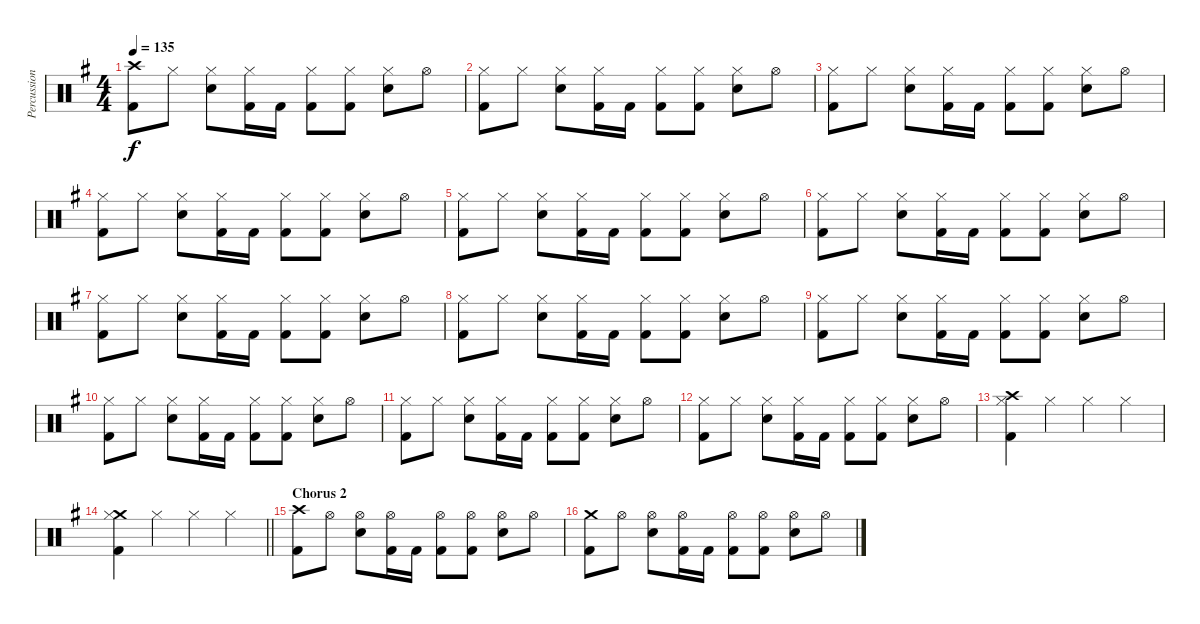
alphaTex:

\track ("Percussion" "Percussion") {instrument percussion}
\staff {score}
\articulation defaults
\ts (4 4)
\tempo 135
\clef neutral
\ks g
("Crash high (hit)" "Kick (hit) 2").8{dy f} "Hi-Hat (closed)".8 ("Hi-Hat (closed)" "Electric Snare (hit)").8 ("Hi-Hat (closed)" "Kick (hit) 2").16 "Kick (hit) 2".16 ("Hi-Hat (closed)" "Kick (hit) 2").8 ("Hi-Hat (closed)" "Kick (hit) 2").8 ("Hi-Hat (closed)" "Electric Snare (hit)").8 "Hi-Hat (open)".8 |
("Hi-Hat (closed)" "Kick (hit) 2").8 "Hi-Hat (closed)".8 ("Hi-Hat (closed)" "Electric Snare (hit)").8 ("Hi-Hat (closed)" "Kick (hit) 2").16 "Kick (hit) 2".16 ("Hi-Hat (closed)" "Kick (hit) 2").8 ("Hi-Hat (closed)" "Kick (hit) 2").8 ("Hi-Hat (closed)" "Electric Snare (hit)").8 "Hi-Hat (open)".8 |
("Hi-Hat (closed)" "Kick (hit) 2").8 "Hi-Hat (closed)".8 ("Hi-Hat (closed)" "Electric Snare (hit)").8 ("Hi-Hat (closed)" "Kick (hit) 2").16 "Kick (hit) 2".16 ("Hi-Hat (closed)" "Kick (hit) 2").8 ("Hi-Hat (closed)" "Kick (hit) 2").8 ("Hi-Hat (closed)" "Electric Snare (hit)").8 "Hi-Hat (open)".8 |
("Hi-Hat (closed)" "Kick (hit) 2").8 "Hi-Hat (closed)".8 ("Hi-Hat (closed)" "Electric Snare (hit)").8 ("Hi-Hat (closed)" "Kick (hit) 2").16 "Kick (hit) 2".16 ("Hi-Hat (closed)" "Kick (hit) 2").8 ("Hi-Hat (closed)" "Kick (hit) 2").8 ("Hi-Hat (closed)" "Electric Snare (hit)").8 "Hi-Hat (open)".8 |
("Hi-Hat (closed)" "Kick (hit) 2").8 "Hi-Hat (closed)".8 ("Hi-Hat (closed)" "Electric Snare (hit)").8 ("Hi-Hat (closed)" "Kick (hit) 2").16 "Kick (hit) 2".16 ("Hi-Hat (closed)" "Kick (hit) 2").8 ("Hi-Hat (closed)" "Kick (hit) 2").8 ("Hi-Hat (closed)" "Electric Snare (hit)").8 "Hi-Hat (open)".8 |
("Hi-Hat (closed)" "Kick (hit) 2").8 "Hi-Hat (closed)".8 ("Hi-Hat (closed)" "Electric Snare (hit)").8 ("Hi-Hat (closed)" "Kick (hit) 2").16 "Kick (hit) 2".16 ("Hi-Hat (closed)" "Kick (hit) 2").8 ("Hi-Hat (closed)" "Kick (hit) 2").8 ("Hi-Hat (closed)" "Electric Snare (hit)").8 "Hi-Hat (open)".8 |
("Hi-Hat (closed)" "Kick (hit) 2").8 "Hi-Hat (closed)".8 ("Hi-Hat (closed)" "Electric Snare (hit)").8 ("Hi-Hat (closed)" "Kick (hit) 2").16 "Kick (hit) 2".16 ("Hi-Hat (closed)" "Kick (hit) 2").8 ("Hi-Hat (closed)" "Kick (hit) 2").8 ("Hi-Hat (closed)" "Electric Snare (hit)").8 "Hi-Hat (open)".8 |
("Hi-Hat (closed)" "Kick (hit) 2").8 "Hi-Hat (closed)".8 ("Hi-Hat (closed)" "Electric Snare (hit)").8 ("Hi-Hat (closed)" "Kick (hit) 2").16 "Kick (hit) 2".16 ("Hi-Hat (closed)" "Kick (hit) 2").8 ("Hi-Hat (closed)" "Kick (hit) 2").8 ("Hi-Hat (closed)" "Electric Snare (hit)").8 "Hi-Hat (open)".8 |
("Hi-Hat (closed)" "Kick (hit) 2").8 "Hi-Hat (closed)".8 ("Hi-Hat (closed)" "Electric Snare (hit)").8 ("Hi-Hat (closed)" "Kick (hit) 2").16 "Kick (hit) 2".16 ("Hi-Hat (closed)" "Kick (hit) 2").8 ("Hi-Hat (closed)" "Kick (hit) 2").8 ("Hi-Hat (closed)" "Electric Snare (hit)").8 "Hi-Hat (open)".8 |
("Hi-Hat (closed)" "Kick (hit) 2").8 "Hi-Hat (closed)".8 ("Hi-Hat (closed)" "Electric Snare (hit)").8 ("Hi-Hat (closed)" "Kick (hit) 2").16 "Kick (hit) 2".16 ("Hi-Hat (closed)" "Kick (hit) 2").8 ("Hi-Hat (closed)" "Kick (hit) 2").8 ("Hi-Hat (closed)" "Electric Snare (hit)").8 "Hi-Hat (open)".8 |
("Hi-Hat (closed)" "Kick (hit) 2").8 "Hi-Hat (closed)".8 ("Hi-Hat (closed)" "Electric Snare (hit)").8 ("Hi-Hat (closed)" "Kick (hit) 2").16 "Kick (hit) 2".16 ("Hi-Hat (closed)" "Kick (hit) 2").8 ("Hi-Hat (closed)" "Kick (hit) 2").8 ("Hi-Hat (closed)" "Electric Snare (hit)").8 "Hi-Hat (open)".8 |
("Hi-Hat (closed)" "Kick (hit) 2").8 "Hi-Hat (closed)".8 ("Hi-Hat (closed)" "Electric Snare (hit)").8 ("Hi-Hat (closed)" "Kick (hit) 2").16 "Kick (hit) 2".16 ("Hi-Hat (closed)" "Kick (hit) 2").8 ("Hi-Hat (closed)" "Kick (hit) 2").8 ("Hi-Hat (closed)" "Electric Snare (hit)").8 "Hi-Hat (open)".8 |
("Crash high (hit)" "Hi-Hat (closed)" "Kick (hit) 2").4 "Hi-Hat (closed)".4 "Hi-Hat (closed)".4 "Hi-Hat (closed)".4 |
\barLineRight lightlight
("Crash medium (hit)" "Hi-Hat (closed)" "Kick (hit) 2").4 "Hi-Hat (closed)".4 "Hi-Hat (closed)".4 "Hi-Hat (closed)".4 |
\section ("" "Chorus 2")
("Crash high (hit)" "Kick (hit) 2").8 "Hi-Hat (open)".8 ("Hi-Hat (open)" "Electric Snare (hit)").8 ("Hi-Hat (open)" "Kick (hit) 2").16 "Kick (hit) 2".16 ("Hi-Hat (open)" "Kick (hit) 2").8 ("Hi-Hat (open)" "Kick (hit) 2").8 ("Hi-Hat (open)" "Electric Snare (hit)").8 "Hi-Hat (open)".8 |
("Crash medium (hit)" "Kick (hit) 2").8 "Hi-Hat (open)".8 ("Hi-Hat (open)" "Electric Snare (hit)").8 ("Hi-Hat (open)" "Kick (hit) 2").16 "Kick (hit) 2".16 ("Hi-Hat (open)" "Kick (hit) 2").8 ("Hi-Hat (open)" "Kick (hit) 2").8 ("Hi-Hat (open)" "Electric Snare (hit)").8 "Hi-Hat (open)".8
